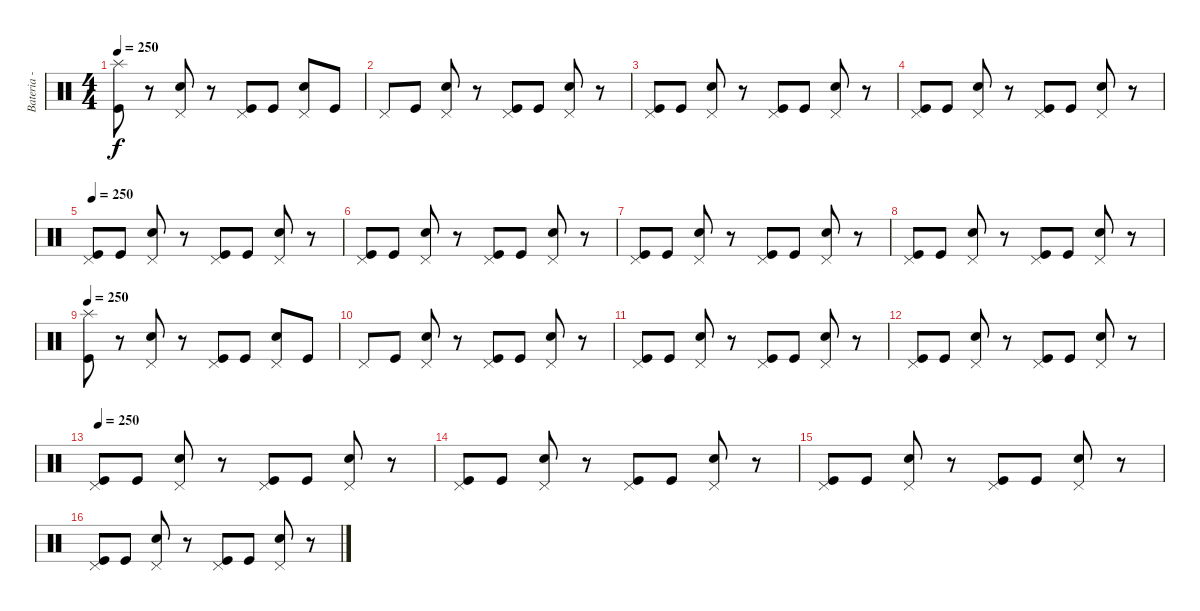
\track ("Bateria - Japinha" "Bateria - ") {instrument percussion}
\staff {score}
\articulation defaults
\ts (4 4)
\tempo 250
\clef neutral
\ks c
("Kick (hit)" "Splash (hit)").8{dy f} r.8 ("Snare (hit) 2" "Pedal Hi-Hat (hit)").8 r.8 ("Kick (hit)" "Pedal Hi-Hat (hit)").8 "Kick (hit)".8 ("Snare (hit) 2" "Pedal Hi-Hat (hit)").8 "Kick (hit)".8 |
"Pedal Hi-Hat (hit)".8 "Kick (hit)".8 ("Snare (hit) 2" "Pedal Hi-Hat (hit)").8 r.8 ("Kick (hit)" "Pedal Hi-Hat (hit)").8 "Kick (hit)".8 ("Snare (hit) 2" "Pedal Hi-Hat (hit)").8 r.8 |
("Kick (hit)" "Pedal Hi-Hat (hit)").8 "Kick (hit)".8 ("Snare (hit) 2" "Pedal Hi-Hat (hit)").8 r.8 ("Kick (hit)" "Pedal Hi-Hat (hit)").8 "Kick (hit)".8 ("Snare (hit) 2" "Pedal Hi-Hat (hit)").8 r.8 |
("Kick (hit)" "Pedal Hi-Hat (hit)").8 "Kick (hit)".8 ("Snare (hit) 2" "Pedal Hi-Hat (hit)").8 r.8 ("Kick (hit)" "Pedal Hi-Hat (hit)").8 "Kick (hit)".8 ("Snare (hit) 2" "Pedal Hi-Hat (hit)").8 r.8 |
\tempo 250
("Kick (hit)" "Pedal Hi-Hat (hit)").8 "Kick (hit)".8 ("Snare (hit) 2" "Pedal Hi-Hat (hit)").8 r.8 ("Kick (hit)" "Pedal Hi-Hat (hit)").8 "Kick (hit)".8 ("Snare (hit) 2" "Pedal Hi-Hat (hit)").8 r.8 |
("Kick (hit)" "Pedal Hi-Hat (hit)").8 "Kick (hit)".8 ("Snare (hit) 2" "Pedal Hi-Hat (hit)").8 r.8 ("Kick (hit)" "Pedal Hi-Hat (hit)").8 "Kick (hit)".8 ("Snare (hit) 2" "Pedal Hi-Hat (hit)").8 r.8 |
("Kick (hit)" "Pedal Hi-Hat (hit)").8 "Kick (hit)".8 ("Snare (hit) 2" "Pedal Hi-Hat (hit)").8 r.8 ("Kick (hit)" "Pedal Hi-Hat (hit)").8 "Kick (hit)".8 ("Snare (hit) 2" "Pedal Hi-Hat (hit)").8 r.8 |
("Kick (hit)" "Pedal Hi-Hat (hit)").8 "Kick (hit)".8 ("Snare (hit) 2" "Pedal Hi-Hat (hit)").8 r.8 ("Kick (hit)" "Pedal Hi-Hat (hit)").8 "Kick (hit)".8 ("Snare (hit) 2" "Pedal Hi-Hat (hit)").8 r.8 |
\tempo 250
("Kick (hit)" "Splash (hit)").8 r.8 ("Snare (hit) 2" "Pedal Hi-Hat (hit)").8 r.8 ("Kick (hit)" "Pedal Hi-Hat (hit)").8 "Kick (hit)".8 ("Snare (hit) 2" "Pedal Hi-Hat (hit)").8 "Kick (hit)".8 |
"Pedal Hi-Hat (hit)".8 "Kick (hit)".8 ("Snare (hit) 2" "Pedal Hi-Hat (hit)").8 r.8 ("Kick (hit)" "Pedal Hi-Hat (hit)").8 "Kick (hit)".8 ("Snare (hit) 2" "Pedal Hi-Hat (hit)").8 r.8 |
("Kick (hit)" "Pedal Hi-Hat (hit)").8 "Kick (hit)".8 ("Snare (hit) 2" "Pedal Hi-Hat (hit)").8 r.8 ("Kick (hit)" "Pedal Hi-Hat (hit)").8 "Kick (hit)".8 ("Snare (hit) 2" "Pedal Hi-Hat (hit)").8 r.8 |
("Kick (hit)" "Pedal Hi-Hat (hit)").8 "Kick (hit)".8 ("Snare (hit) 2" "Pedal Hi-Hat (hit)").8 r.8 ("Kick (hit)" "Pedal Hi-Hat (hit)").8 "Kick (hit)".8 ("Snare (hit) 2" "Pedal Hi-Hat (hit)").8 r.8 |
\tempo 250
("Kick (hit)" "Pedal Hi-Hat (hit)").8 "Kick (hit)".8 ("Snare (hit) 2" "Pedal Hi-Hat (hit)").8 r.8 ("Kick (hit)" "Pedal Hi-Hat (hit)").8 "Kick (hit)".8 ("Snare (hit) 2" "Pedal Hi-Hat (hit)").8 r.8 |
("Kick (hit)" "Pedal Hi-Hat (hit)").8 "Kick (hit)".8 ("Snare (hit) 2" "Pedal Hi-Hat (hit)").8 r.8 ("Kick (hit)" "Pedal Hi-Hat (hit)").8 "Kick (hit)".8 ("Snare (hit) 2" "Pedal Hi-Hat (hit)").8 r.8 |
("Kick (hit)" "Pedal Hi-Hat (hit)").8 "Kick (hit)".8 ("Snare (hit) 2" "Pedal Hi-Hat (hit)").8 r.8 ("Kick (hit)" "Pedal Hi-Hat (hit)").8 "Kick (hit)".8 ("Snare (hit) 2" "Pedal Hi-Hat (hit)").8 r.8 |
("Kick (hit)" "Pedal Hi-Hat (hit)").8 "Kick (hit)".8 ("Snare (hit) 2" "Pedal Hi-Hat (hit)").8 r.8 ("Kick (hit)" "Pedal Hi-Hat (hit)").8 "Kick (hit)".8 ("Snare (hit) 2" "Pedal Hi-Hat (hit)").8 r.8
